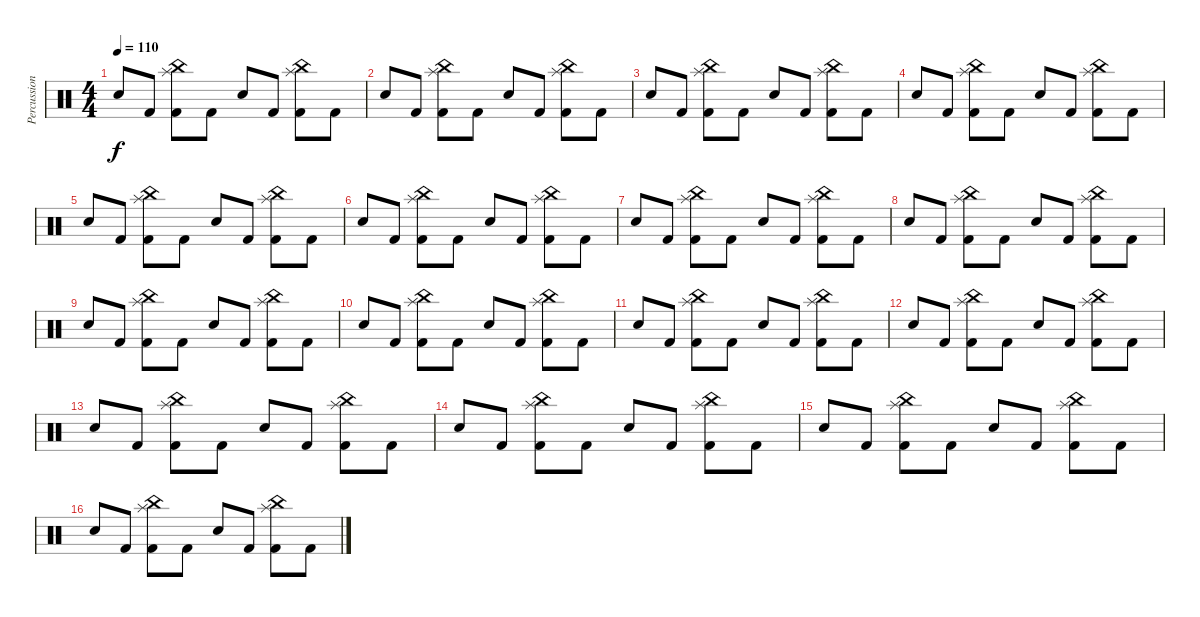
\track ("Percussions" "Percussion") {instrument percussion}
\staff {score}
\articulation defaults
\ts (4 4)
\tempo 110
\clef neutral
\ks c "Snare (hit) 2".8{dy f} "Kick (hit) 2".8
("Splash (hit)" "China (hit)" "Kick (hit) 2").8 "Kick (hit) 2".8 "Snare (hit) 2".8 "Kick (hit) 2".8 ("Splash (hit)" "China (hit)" "Kick (hit) 2").8 "Kick (hit) 2".8 |
"Snare (hit) 2".8 "Kick (hit) 2".8 ("Splash (hit)" "China (hit)" "Kick (hit) 2").8 "Kick (hit) 2".8 "Snare (hit) 2".8 "Kick (hit) 2".8 ("Splash (hit)" "China (hit)" "Kick (hit) 2").8 "Kick (hit) 2".8 |
"Snare (hit) 2".8 "Kick (hit) 2".8 ("Splash (hit)" "China (hit)" "Kick (hit) 2").8 "Kick (hit) 2".8 "Snare (hit) 2".8 "Kick (hit) 2".8 ("Splash (hit)" "China (hit)" "Kick (hit) 2").8 "Kick (hit) 2".8 |
"Snare (hit) 2".8 "Kick (hit) 2".8 ("Splash (hit)" "China (hit)" "Kick (hit) 2").8 "Kick (hit) 2".8 "Snare (hit) 2".8 "Kick (hit) 2".8 ("Splash (hit)" "China (hit)" "Kick (hit) 2").8 "Kick (hit) 2".8 |
"Snare (hit) 2".8 "Kick (hit) 2".8 ("Splash (hit)" "China (hit)" "Kick (hit) 2").8 "Kick (hit) 2".8 "Snare (hit) 2".8 "Kick (hit) 2".8 ("Splash (hit)" "China (hit)" "Kick (hit) 2").8 "Kick (hit) 2".8 |
"Snare (hit) 2".8 "Kick (hit) 2".8 ("Splash (hit)" "China (hit)" "Kick (hit) 2").8 "Kick (hit) 2".8 "Snare (hit) 2".8 "Kick (hit) 2".8 ("Splash (hit)" "China (hit)" "Kick (hit) 2").8 "Kick (hit) 2".8 |
"Snare (hit) 2".8 "Kick (hit) 2".8 ("Splash (hit)" "China (hit)" "Kick (hit) 2").8 "Kick (hit) 2".8 "Snare (hit) 2".8 "Kick (hit) 2".8 ("Splash (hit)" "China (hit)" "Kick (hit) 2").8 "Kick (hit) 2".8 |
"Snare (hit) 2".8 "Kick (hit) 2".8 ("Splash (hit)" "China (hit)" "Kick (hit) 2").8 "Kick (hit) 2".8 "Snare (hit) 2".8 "Kick (hit) 2".8 ("Splash (hit)" "China (hit)" "Kick (hit) 2").8 "Kick (hit) 2".8 |
"Snare (hit) 2".8 "Kick (hit) 2".8 ("Splash (hit)" "China (hit)" "Kick (hit) 2").8 "Kick (hit) 2".8 "Snare (hit) 2".8 "Kick (hit) 2".8 ("Splash (hit)" "China (hit)" "Kick (hit) 2").8 "Kick (hit) 2".8 |
"Snare (hit) 2".8 "Kick (hit) 2".8 ("Splash (hit)" "China (hit)" "Kick (hit) 2").8 "Kick (hit) 2".8 "Snare (hit) 2".8 "Kick (hit) 2".8 ("Splash (hit)" "China (hit)" "Kick (hit) 2").8 "Kick (hit) 2".8 |
"Snare (hit) 2".8 "Kick (hit) 2".8 ("Splash (hit)" "China (hit)" "Kick (hit) 2").8 "Kick (hit) 2".8 "Snare (hit) 2".8 "Kick (hit) 2".8 ("Splash (hit)" "China (hit)" "Kick (hit) 2").8 "Kick (hit) 2".8 |
"Snare (hit) 2".8 "Kick (hit) 2".8 ("Splash (hit)" "China (hit)" "Kick (hit) 2").8 "Kick (hit) 2".8 "Snare (hit) 2".8 "Kick (hit) 2".8 ("Splash (hit)" "China (hit)" "Kick (hit) 2").8 "Kick (hit) 2".8 |
"Snare (hit) 2".8 "Kick (hit) 2".8 ("Splash (hit)" "China (hit)" "Kick (hit) 2").8 "Kick (hit) 2".8 "Snare (hit) 2".8 "Kick (hit) 2".8 ("Splash (hit)" "China (hit)" "Kick (hit) 2").8 "Kick (hit) 2".8 |
"Snare (hit) 2".8 "Kick (hit) 2".8 ("Splash (hit)" "China (hit)" "Kick (hit) 2").8 "Kick (hit) 2".8 "Snare (hit) 2".8 "Kick (hit) 2".8 ("Splash (hit)" "China (hit)" "Kick (hit) 2").8 "Kick (hit) 2".8 |
"Snare (hit) 2".8 "Kick (hit) 2".8 ("Splash (hit)" "China (hit)" "Kick (hit) 2").8 "Kick (hit) 2".8 "Snare (hit) 2".8 "Kick (hit) 2".8 ("Splash (hit)" "China (hit)" "Kick (hit) 2").8 "Kick (hit) 2".8 |
"Snare (hit) 2".8 "Kick (hit) 2".8 ("Splash (hit)" "China (hit)" "Kick (hit) 2").8 "Kick (hit) 2".8 "Snare (hit) 2".8 "Kick (hit) 2".8 ("Splash (hit)" "China (hit)" "Kick (hit) 2").8 "Kick (hit) 2".8
